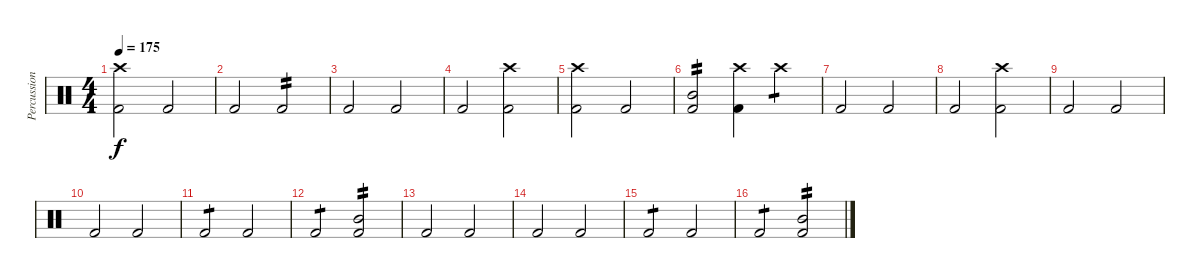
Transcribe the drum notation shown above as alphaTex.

\track ("Percussion" "Percussion") {instrument percussion}
\staff {score}
\articulation defaults
\ts (4 4)
\tempo 175
\clef neutral
\ks c
("Crash high (hit)" "Kick (hit) 2").2{dy f} "Kick (hit) 2".2 |
"Kick (hit) 2".2 "Kick (hit) 2".2{tp 2} |
"Kick (hit) 2".2 "Kick (hit) 2".2 |
"Kick (hit) 2".2 ("Crash high (hit)" "Kick (hit) 2").2 |
("Crash high (hit)" "Kick (hit) 2").2 "Kick (hit) 2".2 |
("Mid Tom (hit)" "Kick (hit) 2").2{tp 2} ("Crash high (hit)" "Kick (hit) 2").4 "Crash high (hit)".4{tp 1} |
"Kick (hit) 2".2 "Kick (hit) 2".2 |
"Kick (hit) 2".2 ("Crash high (hit)" "Kick (hit) 2").2 |
"Kick (hit) 2".2 "Kick (hit) 2".2 |
"Kick (hit) 2".2 "Kick (hit) 2".2 |
"Kick (hit) 2".2{tp 1} "Kick (hit) 2".2 |
"Kick (hit) 2".2{tp 1} ("Mid Tom (hit)" "Kick (hit) 2").2{tp 2} |
"Kick (hit) 2".2 "Kick (hit) 2".2 |
"Kick (hit) 2".2 "Kick (hit) 2".2 |
"Kick (hit) 2".2{tp 1} "Kick (hit) 2".2 |
"Kick (hit) 2".2{tp 1} ("Mid Tom (hit)" "Kick (hit) 2").2{tp 2}
